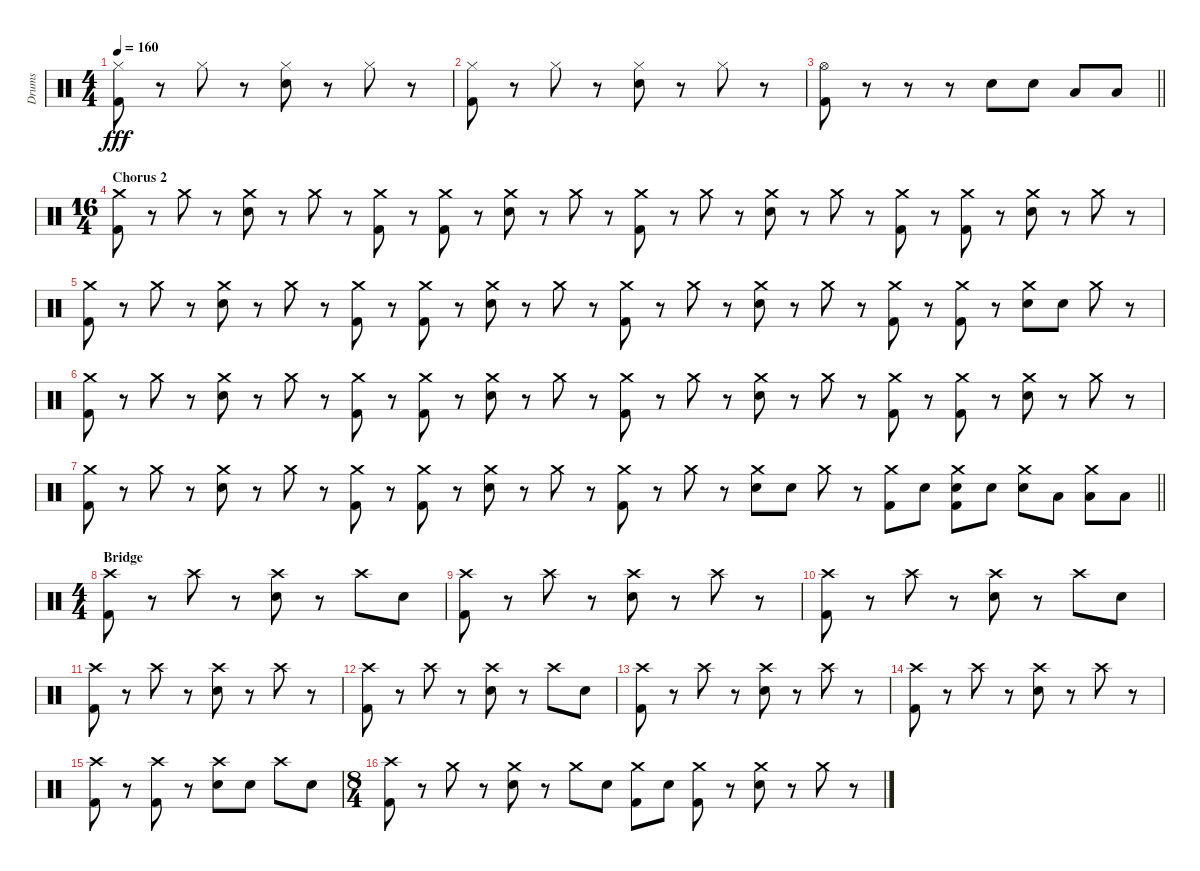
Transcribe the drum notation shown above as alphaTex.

\track ("Drums" "Drums") {instrument percussion}
\staff {score}
\articulation defaults
\ts (4 4)
\tempo 160
\clef neutral
\ks c
("Hi-Hat (closed)" "Kick (hit) 2").8{dy fff} r.8 "Hi-Hat (closed)".8 r.8 ("Hi-Hat (closed)" "Snare (hit) 2").8 r.8 "Hi-Hat (closed)".8 r.8 |
("Hi-Hat (closed)" "Kick (hit) 2").8 r.8 "Hi-Hat (closed)".8 r.8 ("Hi-Hat (closed)" "Snare (hit) 2").8 r.8 "Hi-Hat (closed)".8 r.8 |
\barLineRight lightlight
("Hi-Hat (open)" "Kick (hit) 2").8 r.8 r.8 r.8 "Snare (hit) 2".8 "Snare (hit) 2".8 "Low Tom (hit)".8 "Low Tom (hit)".8 |
\ts (16 4)
\section ("" "Chorus 2")
("Crash medium (hit)" "Kick (hit) 2").8 r.8 "Crash medium (hit)".8 r.8 ("Crash medium (hit)" "Snare (hit) 2").8 r.8 "Crash medium (hit)".8 r.8 ("Crash medium (hit)" "Kick (hit) 2").8 r.8 ("Crash medium (hit)" "Kick (hit) 2").8 r.8 ("Crash medium (hit)" "Snare (hit) 2").8 r.8 "Crash medium (hit)".8 r.8 ("Crash medium (hit)" "Kick (hit) 2").8 r.8 "Crash medium (hit)".8 r.8 ("Crash medium (hit)" "Snare (hit) 2").8 r.8 "Crash medium (hit)".8 r.8 ("Crash medium (hit)" "Kick (hit) 2").8 r.8 ("Crash medium (hit)" "Kick (hit) 2").8 r.8 ("Crash medium (hit)" "Snare (hit) 2").8 r.8 "Crash medium (hit)".8 r.8 |
("Crash medium (hit)" "Kick (hit) 2").8 r.8 "Crash medium (hit)".8 r.8 ("Crash medium (hit)" "Snare (hit) 2").8 r.8 "Crash medium (hit)".8 r.8 ("Crash medium (hit)" "Kick (hit) 2").8 r.8 ("Crash medium (hit)" "Kick (hit) 2").8 r.8 ("Crash medium (hit)" "Snare (hit) 2").8 r.8 "Crash medium (hit)".8 r.8 ("Crash medium (hit)" "Kick (hit) 2").8 r.8 "Crash medium (hit)".8 r.8 ("Crash medium (hit)" "Snare (hit) 2").8 r.8 "Crash medium (hit)".8 r.8 ("Crash medium (hit)" "Kick (hit) 2").8 r.8 ("Crash medium (hit)" "Kick (hit) 2").8 r.8 ("Crash medium (hit)" "Snare (hit) 2").8 "Snare (hit) 2".8 "Crash medium (hit)".8 r.8 |
("Crash medium (hit)" "Kick (hit) 2").8 r.8 "Crash medium (hit)".8 r.8 ("Crash medium (hit)" "Snare (hit) 2").8 r.8 "Crash medium (hit)".8 r.8 ("Crash medium (hit)" "Kick (hit) 2").8 r.8 ("Crash medium (hit)" "Kick (hit) 2").8 r.8 ("Crash medium (hit)" "Snare (hit) 2").8 r.8 "Crash medium (hit)".8 r.8 ("Crash medium (hit)" "Kick (hit) 2").8 r.8 "Crash medium (hit)".8 r.8 ("Crash medium (hit)" "Snare (hit) 2").8 r.8 "Crash medium (hit)".8 r.8 ("Crash medium (hit)" "Kick (hit) 2").8 r.8 ("Crash medium (hit)" "Kick (hit) 2").8 r.8 ("Crash medium (hit)" "Snare (hit) 2").8 r.8 "Crash medium (hit)".8 r.8 |
\barLineRight lightlight
("Crash medium (hit)" "Kick (hit) 2").8 r.8 "Crash medium (hit)".8 r.8 ("Crash medium (hit)" "Snare (hit) 2").8 r.8 "Crash medium (hit)".8 r.8 ("Crash medium (hit)" "Kick (hit) 2").8 r.8 ("Crash medium (hit)" "Kick (hit) 2").8 r.8 ("Crash medium (hit)" "Snare (hit) 2").8 r.8 "Crash medium (hit)".8 r.8 ("Crash medium (hit)" "Kick (hit) 2").8 r.8 "Crash medium (hit)".8 r.8 ("Crash medium (hit)" "Snare (hit) 2").8 "Snare (hit) 2".8 "Crash medium (hit)".8 r.8 ("Crash medium (hit)" "Kick (hit) 2").8 "Snare (hit) 2".8 ("Crash medium (hit)" "Snare (hit) 2" "Kick (hit) 2").8 "Snare (hit) 2".8 ("Crash medium (hit)" "Snare (hit) 2").8 "Low Tom (hit)".8 ("Crash medium (hit)" "Low Tom (hit)").8 "Low Floor Tom (hit)".8 |
\ts (4 4)
\section ("" "Bridge")
("Crash high (hit)" "Kick (hit) 2").8 r.8 "Crash high (hit)".8 r.8 ("Crash high (hit)" "Snare (hit) 2").8 r.8 "Crash high (hit)".8 "Snare (hit) 2".8 |
("Crash high (hit)" "Kick (hit) 2").8 r.8 "Crash high (hit)".8 r.8 ("Crash high (hit)" "Snare (hit) 2").8 r.8 "Crash high (hit)".8 r.8 |
("Crash high (hit)" "Kick (hit) 2").8 r.8 "Crash high (hit)".8 r.8 ("Crash high (hit)" "Snare (hit) 2").8 r.8 "Crash high (hit)".8 "Snare (hit) 2".8 |
("Crash high (hit)" "Kick (hit) 2").8 r.8 "Crash high (hit)".8 r.8 ("Crash high (hit)" "Snare (hit) 2").8 r.8 "Crash high (hit)".8 r.8 |
("Crash high (hit)" "Kick (hit) 2").8 r.8 "Crash high (hit)".8 r.8 ("Crash high (hit)" "Snare (hit) 2").8 r.8 "Crash high (hit)".8 "Snare (hit) 2".8 |
("Crash high (hit)" "Kick (hit) 2").8 r.8 "Crash high (hit)".8 r.8 ("Crash high (hit)" "Snare (hit) 2").8 r.8 "Crash high (hit)".8 r.8 |
("Crash high (hit)" "Kick (hit) 2").8 r.8 "Crash high (hit)".8 r.8 ("Crash high (hit)" "Snare (hit) 2").8 r.8 "Crash high (hit)".8 r.8 |
("Crash high (hit)" "Kick (hit) 2").8 r.8 ("Crash high (hit)" "Kick (hit) 2").8 r.8 ("Crash high (hit)" "Snare (hit) 2").8 "Snare (hit) 2".8 "Crash high (hit)".8 "Snare (hit) 2".8 |
\ts (8 4)
("Crash high (hit)" "Kick (hit) 2").8 r.8 "Crash medium (hit)".8 r.8 ("Crash medium (hit)" "Snare (hit) 2").8 r.8 "Crash medium (hit)".8 "Snare (hit) 2".8 ("Crash medium (hit)" "Kick (hit) 2").8 "Snare (hit) 2".8 ("Crash medium (hit)" "Kick (hit) 2").8 r.8 ("Crash medium (hit)" "Snare (hit) 2").8 r.8 "Crash medium (hit)".8 r.8
